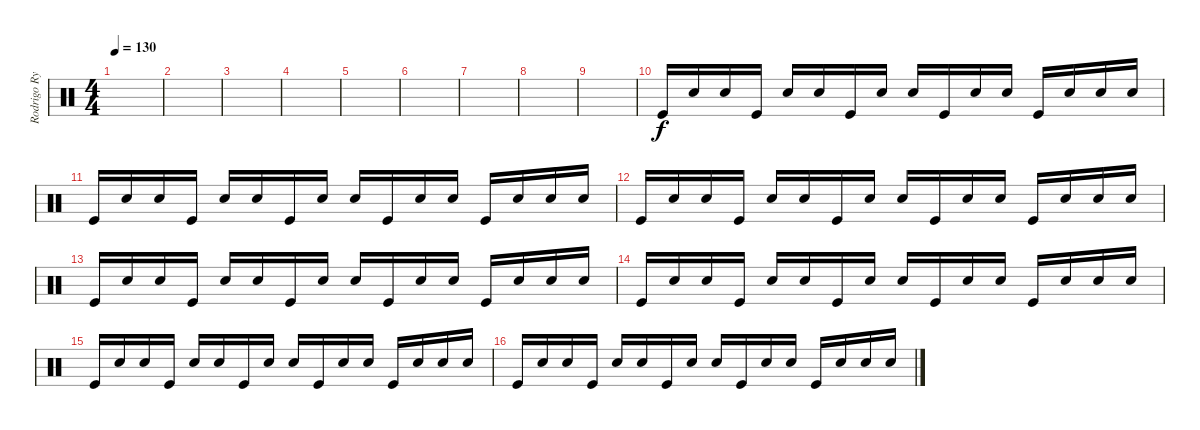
\track ("Rodrigo Rythmics" "Rodrigo Ry") {instrument percussion}
\staff {score}
\articulation defaults
\ts (4 4)
\tempo 130
\clef neutral
\ks c
|
|
|
|
|
|
|
|
|
"Kick (hit)".16 "Electric Snare (hit)".16 "Electric Snare (hit)".16 "Kick (hit)".16 "Electric Snare (hit)".16 "Electric Snare (hit)".16 "Kick (hit)".16 "Electric Snare (hit)".16 "Electric Snare (hit)".16 "Kick (hit)".16 "Electric Snare (hit)".16 "Electric Snare (hit)".16 "Kick (hit)".16 "Electric Snare (hit)".16 "Electric Snare (hit)".16 "Electric Snare (hit)".16 |
"Kick (hit)".16 "Electric Snare (hit)".16 "Electric Snare (hit)".16 "Kick (hit)".16 "Electric Snare (hit)".16 "Electric Snare (hit)".16 "Kick (hit)".16 "Electric Snare (hit)".16 "Electric Snare (hit)".16 "Kick (hit)".16 "Electric Snare (hit)".16 "Electric Snare (hit)".16 "Kick (hit)".16 "Electric Snare (hit)".16 "Electric Snare (hit)".16 "Electric Snare (hit)".16 |
"Kick (hit)".16 "Electric Snare (hit)".16 "Electric Snare (hit)".16 "Kick (hit)".16 "Electric Snare (hit)".16 "Electric Snare (hit)".16 "Kick (hit)".16 "Electric Snare (hit)".16 "Electric Snare (hit)".16 "Kick (hit)".16 "Electric Snare (hit)".16 "Electric Snare (hit)".16 "Kick (hit)".16 "Electric Snare (hit)".16 "Electric Snare (hit)".16 "Electric Snare (hit)".16 |
"Kick (hit)".16 "Electric Snare (hit)".16 "Electric Snare (hit)".16 "Kick (hit)".16 "Electric Snare (hit)".16 "Electric Snare (hit)".16 "Kick (hit)".16 "Electric Snare (hit)".16 "Electric Snare (hit)".16 "Kick (hit)".16 "Electric Snare (hit)".16 "Electric Snare (hit)".16 "Kick (hit)".16 "Electric Snare (hit)".16 "Electric Snare (hit)".16 "Electric Snare (hit)".16 |
"Kick (hit)".16 "Electric Snare (hit)".16 "Electric Snare (hit)".16 "Kick (hit)".16 "Electric Snare (hit)".16 "Electric Snare (hit)".16 "Kick (hit)".16 "Electric Snare (hit)".16 "Electric Snare (hit)".16 "Kick (hit)".16 "Electric Snare (hit)".16 "Electric Snare (hit)".16 "Kick (hit)".16 "Electric Snare (hit)".16 "Electric Snare (hit)".16 "Electric Snare (hit)".16 |
"Kick (hit)".16 "Electric Snare (hit)".16 "Electric Snare (hit)".16 "Kick (hit)".16 "Electric Snare (hit)".16 "Electric Snare (hit)".16 "Kick (hit)".16 "Electric Snare (hit)".16 "Electric Snare (hit)".16 "Kick (hit)".16 "Electric Snare (hit)".16 "Electric Snare (hit)".16 "Kick (hit)".16 "Electric Snare (hit)".16 "Electric Snare (hit)".16 "Electric Snare (hit)".16 |
"Kick (hit)".16 "Electric Snare (hit)".16 "Electric Snare (hit)".16 "Kick (hit)".16 "Electric Snare (hit)".16 "Electric Snare (hit)".16 "Kick (hit)".16 "Electric Snare (hit)".16 "Electric Snare (hit)".16 "Kick (hit)".16 "Electric Snare (hit)".16 "Electric Snare (hit)".16 "Kick (hit)".16 "Electric Snare (hit)".16 "Electric Snare (hit)".16 "Electric Snare (hit)".16
